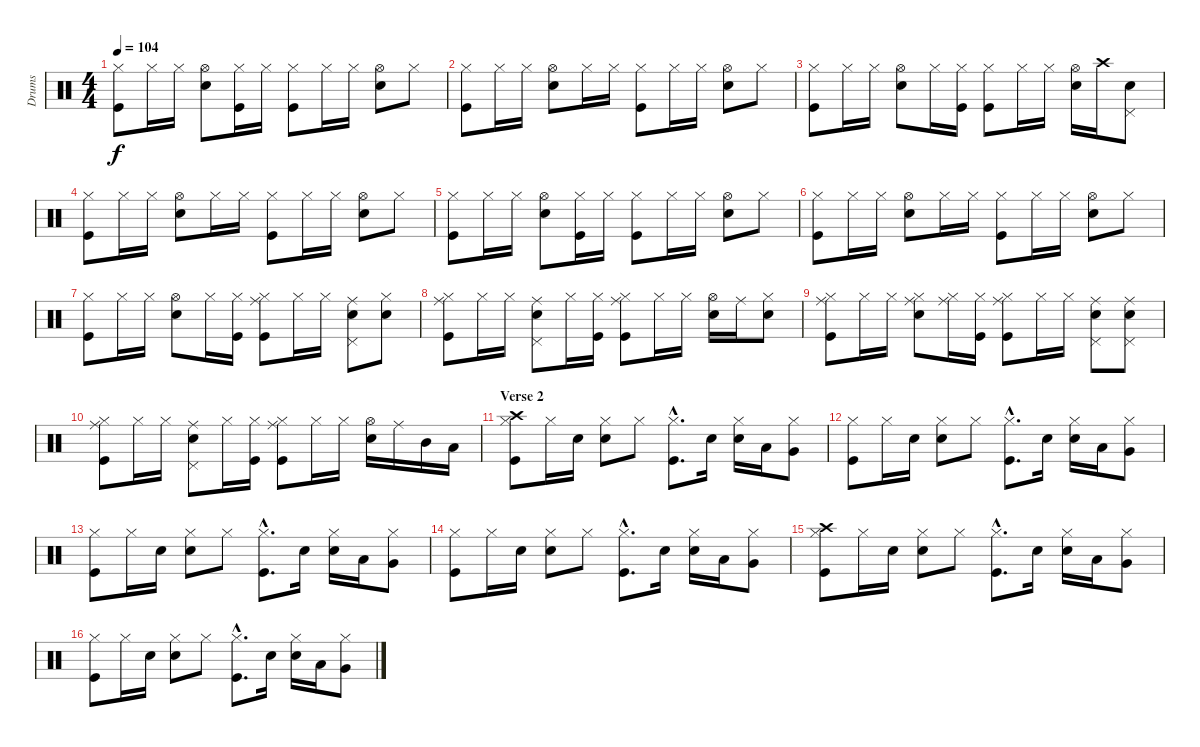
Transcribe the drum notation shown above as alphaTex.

\track ("Drums" "Drums") {instrument percussion}
\staff {score}
\articulation defaults
\ts (4 4)
\tempo 104
\clef neutral
\ks c
("Hi-Hat (closed)" "Kick (hit)").8{dy f} "Hi-Hat (closed)".16 "Hi-Hat (closed)".16 ("Hi-Hat (open)" "Snare (hit) 2").8 ("Hi-Hat (closed)" "Kick (hit)").16 "Hi-Hat (closed)".16 ("Hi-Hat (closed)" "Kick (hit)").8 "Hi-Hat (closed)".16 "Hi-Hat (closed)".16 ("Hi-Hat (open)" "Snare (hit) 2").8 "Hi-Hat (closed)".8 |
("Hi-Hat (closed)" "Kick (hit)").8 "Hi-Hat (closed)".16 "Hi-Hat (closed)".16 ("Hi-Hat (open)" "Snare (hit) 2").8 "Hi-Hat (closed)".16 "Hi-Hat (closed)".16 ("Hi-Hat (closed)" "Kick (hit)").8 "Hi-Hat (closed)".16 "Hi-Hat (closed)".16 ("Hi-Hat (open)" "Snare (hit) 2").8 "Hi-Hat (closed)".8 |
("Hi-Hat (closed)" "Kick (hit)").8 "Hi-Hat (closed)".16 "Hi-Hat (closed)".16 ("Hi-Hat (open)" "Snare (hit) 2").8 "Hi-Hat (closed)".16 ("Hi-Hat (closed)" "Kick (hit)").16 ("Hi-Hat (closed)" "Kick (hit)").8 "Hi-Hat (closed)".16 "Hi-Hat (closed)".16 ("Hi-Hat (open)" "Snare (hit) 2").16 "Crash high (hit)".16 ("Pedal Hi-Hat (hit)" "Snare (hit) 2").8 |
("Hi-Hat (closed)" "Kick (hit)").8 "Hi-Hat (closed)".16 "Hi-Hat (closed)".16 ("Hi-Hat (open)" "Snare (hit) 2").8 "Hi-Hat (closed)".16 "Hi-Hat (closed)".16 ("Hi-Hat (closed)" "Kick (hit)").8 "Hi-Hat (closed)".16 "Hi-Hat (closed)".16 ("Hi-Hat (open)" "Snare (hit) 2").8 "Hi-Hat (closed)".8 |
("Hi-Hat (closed)" "Kick (hit)").8 "Hi-Hat (closed)".16 "Hi-Hat (closed)".16 ("Hi-Hat (open)" "Snare (hit) 2").8 ("Hi-Hat (closed)" "Kick (hit)").16 "Hi-Hat (closed)".16 ("Hi-Hat (closed)" "Kick (hit)").8 "Hi-Hat (closed)".16 "Hi-Hat (closed)".16 ("Hi-Hat (open)" "Snare (hit) 2").8 "Hi-Hat (closed)".8 |
("Hi-Hat (closed)" "Kick (hit)").8 "Hi-Hat (closed)".16 "Hi-Hat (closed)".16 ("Hi-Hat (open)" "Snare (hit) 2").8 "Hi-Hat (closed)".16 "Hi-Hat (closed)".16 ("Hi-Hat (closed)" "Kick (hit)").8 "Hi-Hat (closed)".16 "Hi-Hat (closed)".16 ("Hi-Hat (open)" "Snare (hit) 2").8 "Hi-Hat (closed)".8 |
("Hi-Hat (closed)" "Kick (hit)").8 "Hi-Hat (closed)".16 "Hi-Hat (closed)".16 ("Hi-Hat (open)" "Snare (hit) 2").8 "Hi-Hat (closed)".16 ("Hi-Hat (closed)" "Kick (hit)").16 ("Ride (middle)" "Hi-Hat (closed)" "Kick (hit)").8 "Hi-Hat (closed)".16 "Hi-Hat (closed)".16 ("Ride (middle)" "Pedal Hi-Hat (hit)" "Snare (hit) 2").8 ("Hi-Hat (closed)" "Snare (hit) 2").8 |
("Ride (middle)" "Hi-Hat (closed)" "Kick (hit)").8 "Hi-Hat (closed)".16 "Hi-Hat (closed)".16 ("Ride (middle)" "Pedal Hi-Hat (hit)" "Snare (hit) 2").8 "Hi-Hat (closed)".16 ("Hi-Hat (closed)" "Kick (hit)").16 ("Ride (middle)" "Hi-Hat (closed)" "Kick (hit)").8 "Hi-Hat (closed)".16 "Hi-Hat (closed)".16 ("Hi-Hat (open)" "Snare (hit) 2").16 "Ride (middle)".16 ("Hi-Hat (closed)" "Snare (hit) 2").8 |
("Ride (middle)" "Hi-Hat (closed)" "Kick (hit)").8 "Hi-Hat (closed)".16 "Hi-Hat (closed)".16 ("Ride (middle)" "Hi-Hat (closed)" "Snare (hit) 2").8 ("Ride (middle)" "Hi-Hat (closed)").16 ("Hi-Hat (closed)" "Kick (hit)").16 ("Ride (middle)" "Hi-Hat (closed)" "Kick (hit)").8 "Hi-Hat (closed)".16 "Hi-Hat (closed)".16 ("Ride (middle)" "Pedal Hi-Hat (hit)" "Snare (hit) 2").8 ("Ride (middle)" "Pedal Hi-Hat (hit)" "Snare (hit) 2").8 |
("Ride (middle)" "Hi-Hat (closed)" "Kick (hit)").8 "Hi-Hat (closed)".16 "Hi-Hat (closed)".16 ("Ride (middle)" "Pedal Hi-Hat (hit)" "Snare (hit) 2").8 "Hi-Hat (closed)".16 ("Hi-Hat (closed)" "Kick (hit)").16 ("Ride (middle)" "Hi-Hat (closed)" "Kick (hit)").8 "Hi-Hat (closed)".16 "Hi-Hat (closed)".16 ("Hi-Hat (open)" "Snare (hit) 2").16 "Ride (middle)".16 "Mid Tom (hit)".16 "Low Tom (hit)".16 |
\section ("" "Verse 2")
("Crash high (hit)" "Hi-Hat (closed)" "Kick (hit)").8 "Hi-Hat (closed)".16 "Snare (hit) 2".16 ("Hi-Hat (closed)" "Snare (hit) 2").8 "Hi-Hat (closed)".8 ("Hi-Hat (closed)"{hac} "Kick (hit)"{hac}).8{d} "Snare (hit) 2".16 ("Hi-Hat (closed)" "Snare (hit) 2").16 "Low Tom (hit)".16 ("Hi-Hat (closed)" "Very Low Tom (hit)").8 |
("Hi-Hat (closed)" "Kick (hit)").8 "Hi-Hat (closed)".16 "Snare (hit) 2".16 ("Hi-Hat (closed)" "Snare (hit) 2").8 "Hi-Hat (closed)".8 ("Hi-Hat (closed)"{hac} "Kick (hit)"{hac}).8{d} "Snare (hit) 2".16 ("Hi-Hat (closed)" "Snare (hit) 2").16 "Low Tom (hit)".16 ("Hi-Hat (closed)" "Very Low Tom (hit)").8 |
("Hi-Hat (closed)" "Kick (hit)").8 "Hi-Hat (closed)".16 "Snare (hit) 2".16 ("Hi-Hat (closed)" "Snare (hit) 2").8 "Hi-Hat (closed)".8 ("Hi-Hat (closed)"{hac} "Kick (hit)"{hac}).8{d} "Snare (hit) 2".16 ("Hi-Hat (closed)" "Snare (hit) 2").16 "Low Tom (hit)".16 ("Hi-Hat (closed)" "Very Low Tom (hit)").8 |
("Hi-Hat (closed)" "Kick (hit)").8 "Hi-Hat (closed)".16 "Snare (hit) 2".16 ("Hi-Hat (closed)" "Snare (hit) 2").8 "Hi-Hat (closed)".8 ("Hi-Hat (closed)"{hac} "Kick (hit)"{hac}).8{d} "Snare (hit) 2".16 ("Hi-Hat (closed)" "Snare (hit) 2").16 "Low Tom (hit)".16 ("Hi-Hat (closed)" "Very Low Tom (hit)").8 |
("Crash high (hit)" "Hi-Hat (closed)" "Kick (hit)").8 "Hi-Hat (closed)".16 "Snare (hit) 2".16 ("Hi-Hat (closed)" "Snare (hit) 2").8 "Hi-Hat (closed)".8 ("Hi-Hat (closed)"{hac} "Kick (hit)"{hac}).8{d} "Snare (hit) 2".16 ("Hi-Hat (closed)" "Snare (hit) 2").16 "Low Tom (hit)".16 ("Hi-Hat (closed)" "Very Low Tom (hit)").8 |
("Hi-Hat (closed)" "Kick (hit)").8 "Hi-Hat (closed)".16 "Snare (hit) 2".16 ("Hi-Hat (closed)" "Snare (hit) 2").8 "Hi-Hat (closed)".8 ("Hi-Hat (closed)"{hac} "Kick (hit)"{hac}).8{d} "Snare (hit) 2".16 ("Hi-Hat (closed)" "Snare (hit) 2").16 "Low Tom (hit)".16 ("Hi-Hat (closed)" "Very Low Tom (hit)").8
